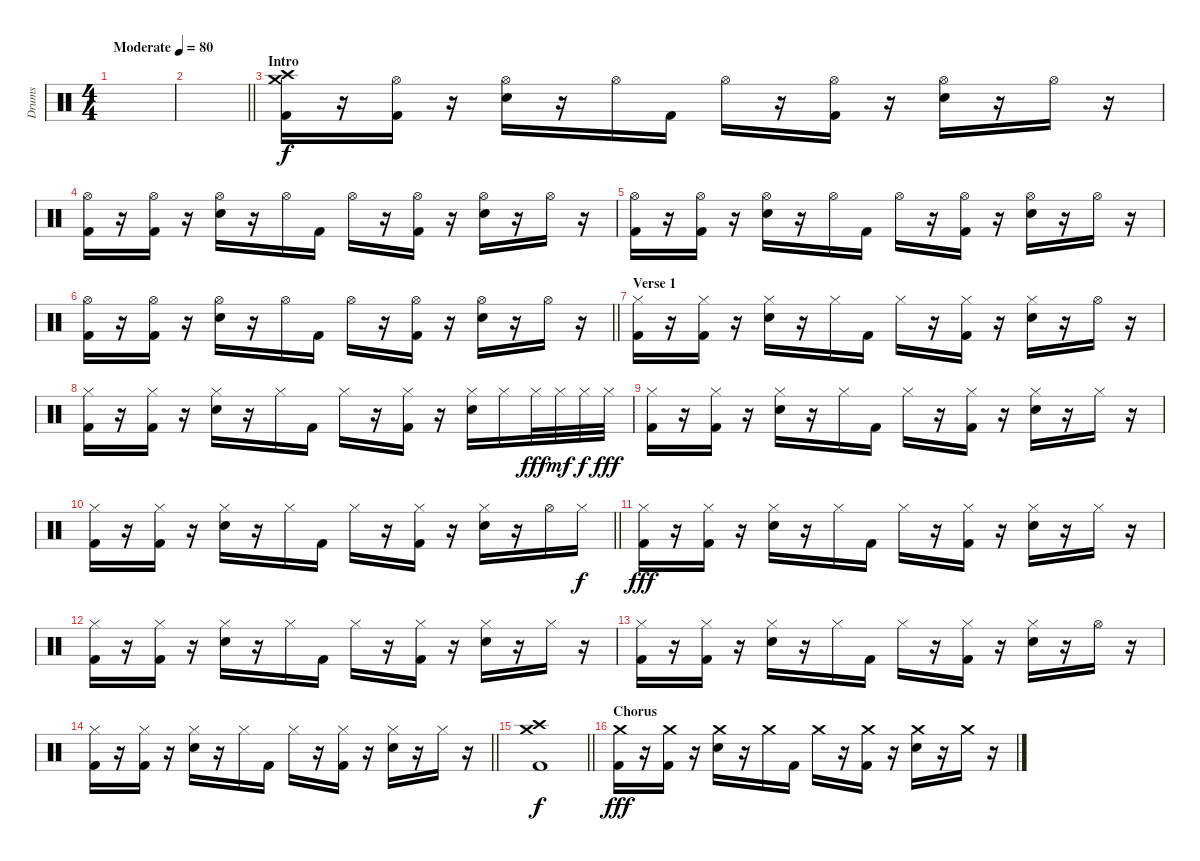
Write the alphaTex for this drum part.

\track ("Drums" "Drums") {instrument percussion}
\staff {score}
\articulation defaults
\ts (4 4)
\tempo (80 "Moderate")
\clef neutral
\ks c
|
\barLineRight lightlight
|
\section ("" "Intro")
("Crash high (hit)" "Crash medium (hit)" "Kick (hit) 2").16 r.16 ("Hi-Hat (open)" "Kick (hit) 2").16 r.16 ("Hi-Hat (open)" "Snare (hit) 2").16 r.16 "Hi-Hat (open)".16 "Kick (hit) 2".16 "Hi-Hat (open)".16 r.16 ("Hi-Hat (open)" "Kick (hit) 2").16 r.16 ("Hi-Hat (open)" "Snare (hit) 2").16 r.16 "Hi-Hat (open)".16 r.16 |
("Hi-Hat (open)" "Kick (hit) 2").16 r.16 ("Hi-Hat (open)" "Kick (hit) 2").16 r.16 ("Hi-Hat (open)" "Snare (hit) 2").16 r.16 "Hi-Hat (open)".16 "Kick (hit) 2".16 "Hi-Hat (open)".16 r.16 ("Hi-Hat (open)" "Kick (hit) 2").16 r.16 ("Hi-Hat (open)" "Snare (hit) 2").16 r.16 "Hi-Hat (open)".16 r.16 |
("Hi-Hat (open)" "Kick (hit) 2").16 r.16 ("Hi-Hat (open)" "Kick (hit) 2").16 r.16 ("Hi-Hat (open)" "Snare (hit) 2").16 r.16 "Hi-Hat (open)".16 "Kick (hit) 2".16 "Hi-Hat (open)".16 r.16 ("Hi-Hat (open)" "Kick (hit) 2").16 r.16 ("Hi-Hat (open)" "Snare (hit) 2").16 r.16 "Hi-Hat (open)".16 r.16 |
\barLineRight lightlight
("Hi-Hat (open)" "Kick (hit) 2").16 r.16 ("Hi-Hat (open)" "Kick (hit) 2").16 r.16 ("Hi-Hat (open)" "Snare (hit) 2").16 r.16 "Hi-Hat (open)".16 "Kick (hit) 2".16 "Hi-Hat (open)".16 r.16 ("Hi-Hat (open)" "Kick (hit) 2").16 r.16 ("Hi-Hat (open)" "Snare (hit) 2").16 r.16 "Hi-Hat (open)".16 r.16 |
\section ("" "Verse 1")
("Hi-Hat (closed)" "Kick (hit) 2").16 r.16 ("Hi-Hat (closed)" "Kick (hit) 2").16 r.16 ("Hi-Hat (closed)" "Snare (hit) 2").16 r.16 "Hi-Hat (closed)".16 "Kick (hit) 2".16 "Hi-Hat (closed)".16 r.16 ("Hi-Hat (closed)" "Kick (hit) 2").16 r.16 ("Hi-Hat (closed)" "Snare (hit) 2").16 r.16 "Hi-Hat (open)".16 r.16 |
("Hi-Hat (closed)" "Kick (hit) 2").16 r.16 ("Hi-Hat (closed)" "Kick (hit) 2").16 r.16 ("Hi-Hat (closed)" "Snare (hit) 2").16 r.16 "Hi-Hat (closed)".16 "Kick (hit) 2".16 "Hi-Hat (closed)".16 r.16 ("Hi-Hat (closed)" "Kick (hit) 2").16 r.16 ("Hi-Hat (closed)" "Snare (hit) 2").16 "Hi-Hat (closed)".16{dy f} "Hi-Hat (closed)".32{dy fff} "Hi-Hat (closed)".32{dy mf} "Hi-Hat (closed)".32{dy f} "Hi-Hat (closed)".32{dy fff} |
("Hi-Hat (closed)" "Kick (hit) 2").16 r.16 ("Hi-Hat (closed)" "Kick (hit) 2").16 r.16 ("Hi-Hat (closed)" "Snare (hit) 2").16 r.16 "Hi-Hat (closed)".16 "Kick (hit) 2".16 "Hi-Hat (closed)".16 r.16 ("Hi-Hat (closed)" "Kick (hit) 2").16 r.16 ("Hi-Hat (closed)" "Snare (hit) 2").16 r.16 "Hi-Hat (closed)".16 r.16 |
\barLineRight lightlight
("Hi-Hat (closed)" "Kick (hit) 2").16 r.16 ("Hi-Hat (closed)" "Kick (hit) 2").16 r.16 ("Hi-Hat (closed)" "Snare (hit) 2").16 r.16 "Hi-Hat (closed)".16 "Kick (hit) 2".16 "Hi-Hat (closed)".16 r.16 ("Hi-Hat (closed)" "Kick (hit) 2").16 r.16 ("Hi-Hat (closed)" "Snare (hit) 2").16 r.16 "Hi-Hat (open)".16 "Hi-Hat (closed)".16{dy f} |
("Hi-Hat (closed)" "Kick (hit) 2").16{dy fff} r.16 ("Hi-Hat (closed)" "Kick (hit) 2").16 r.16 ("Hi-Hat (closed)" "Snare (hit) 2").16 r.16 "Hi-Hat (closed)".16 "Kick (hit) 2".16 "Hi-Hat (closed)".16 r.16 ("Hi-Hat (closed)" "Kick (hit) 2").16 r.16 ("Hi-Hat (closed)" "Snare (hit) 2").16 r.16 "Hi-Hat (closed)".16 r.16 |
("Hi-Hat (closed)" "Kick (hit) 2").16 r.16 ("Hi-Hat (closed)" "Kick (hit) 2").16 r.16 ("Hi-Hat (closed)" "Snare (hit) 2").16 r.16 "Hi-Hat (closed)".16 "Kick (hit) 2".16 "Hi-Hat (closed)".16 r.16 ("Hi-Hat (closed)" "Kick (hit) 2").16 r.16 ("Hi-Hat (closed)" "Snare (hit) 2").16 r.16 "Hi-Hat (closed)".16 r.16 |
("Hi-Hat (closed)" "Kick (hit) 2").16 r.16 ("Hi-Hat (closed)" "Kick (hit) 2").16 r.16 ("Hi-Hat (closed)" "Snare (hit) 2").16 r.16 "Hi-Hat (closed)".16 "Kick (hit) 2".16 "Hi-Hat (closed)".16 r.16 ("Hi-Hat (closed)" "Kick (hit) 2").16 r.16 ("Hi-Hat (closed)" "Snare (hit) 2").16 r.16 "Hi-Hat (open)".16 r.16 |
\barLineRight lightlight
("Hi-Hat (closed)" "Kick (hit) 2").16 r.16 ("Hi-Hat (closed)" "Kick (hit) 2").16 r.16 ("Hi-Hat (closed)" "Snare (hit) 2").16 r.16 "Hi-Hat (closed)".16 "Kick (hit) 2".16 "Hi-Hat (closed)".16 r.16 ("Hi-Hat (closed)" "Kick (hit) 2").16 r.16 ("Hi-Hat (closed)" "Snare (hit) 2").16 r.16 "Hi-Hat (closed)".16 r.16 |
\barLineRight lightlight
("Crash high (hit)" "Crash medium (hit)" "Kick (hit) 2").1{dy f} |
\section ("" "Chorus")
("Crash medium (hit)" "Kick (hit) 2").16{dy fff} r.16 ("Crash medium (hit)" "Kick (hit) 2").16 r.16 ("Crash medium (hit)" "Snare (hit) 2").16 r.16 "Crash medium (hit)".16 "Kick (hit) 2".16 "Crash medium (hit)".16 r.16 ("Crash medium (hit)" "Kick (hit) 2").16 r.16 ("Crash medium (hit)" "Snare (hit) 2").16 r.16 "Crash medium (hit)".16 r.16
